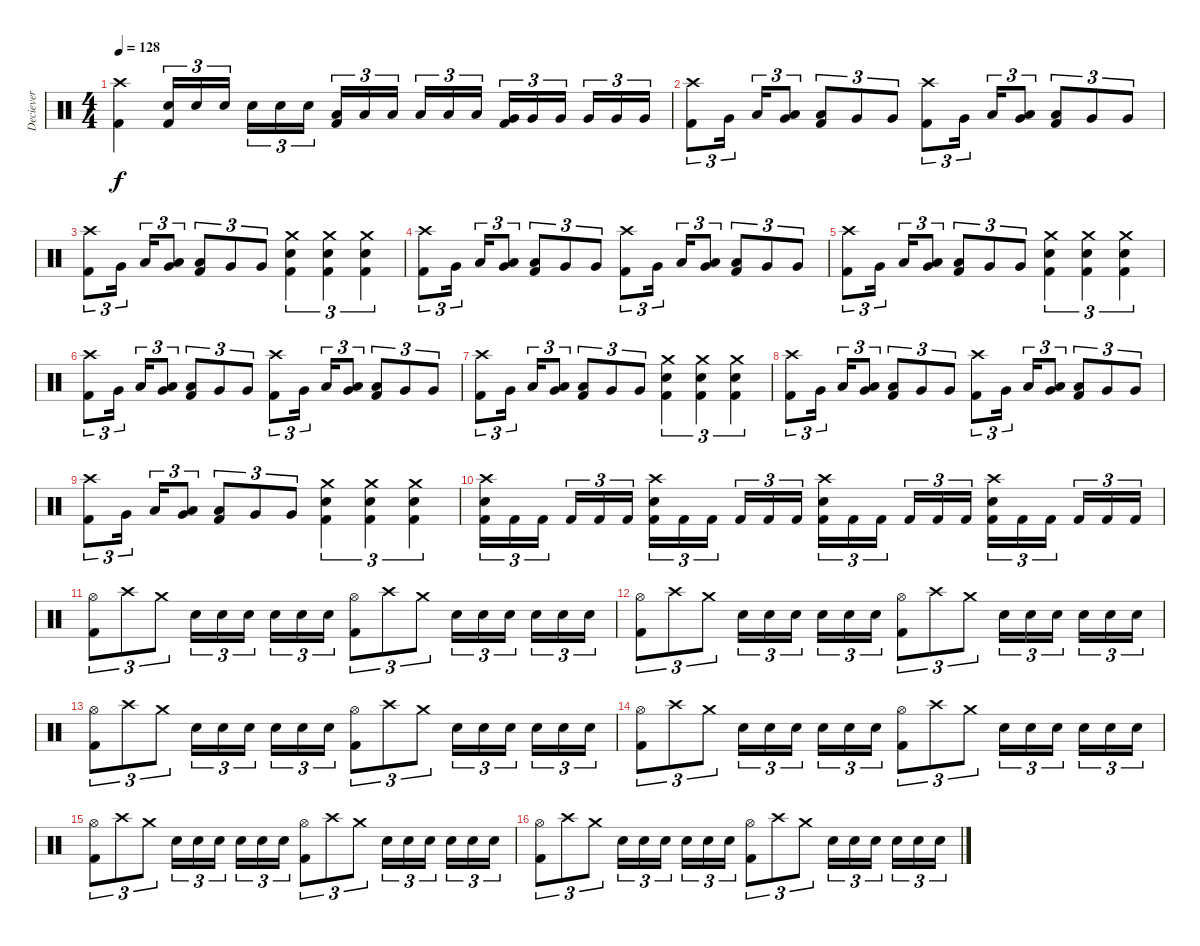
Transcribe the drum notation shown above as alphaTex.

\track ("Deciever" "Deciever") {instrument percussion}
\staff {score}
\articulation defaults
\ts (4 4)
\tempo 128
\clef neutral
\ks c
("Crash high (hit)" "Kick (hit) 2").4{dy f} ("Electric Snare (hit)" "Kick (hit) 2").16{tu (3 2)} "Electric Snare (hit)".16{tu (3 2)} "Electric Snare (hit)".16{tu (3 2) beam splitsecondary} "Electric Snare (hit)".16{tu (3 2)} "Electric Snare (hit)".16{tu (3 2)} "Electric Snare (hit)".16{tu (3 2)} ("Low Tom (hit)" "Kick (hit) 2").16{tu (3 2)} "Low Tom (hit)".16{tu (3 2)} "Low Tom (hit)".16{tu (3 2) beam splitsecondary} "Low Tom (hit)".16{tu (3 2)} "Low Tom (hit)".16{tu (3 2)} "Low Tom (hit)".16{tu (3 2)} ("Very Low Tom (hit)" "Kick (hit) 2").16{tu (3 2)} "Very Low Tom (hit)".16{tu (3 2)} "Very Low Tom (hit)".16{tu (3 2) beam splitsecondary} "Very Low Tom (hit)".16{tu (3 2)} "Very Low Tom (hit)".16{tu (3 2)} "Very Low Tom (hit)".16{tu (3 2)} |
("Crash high (hit)" "Kick (hit) 2").8{tu (3 2)} "Very Low Tom (hit)".16{tu (3 2) beam splitsecondary} "Low Tom (hit)".16{tu (3 2)} ("Low Tom (hit)" "Very Low Tom (hit)").8{tu (3 2)} ("Low Tom (hit)" "Kick (hit) 2").8{tu (3 2)} "Very Low Tom (hit)".8{tu (3 2)} "Very Low Tom (hit)".8{tu (3 2)} ("Crash high (hit)" "Kick (hit) 2").8{tu (3 2)} "Very Low Tom (hit)".16{tu (3 2) beam splitsecondary} "Low Tom (hit)".16{tu (3 2)} ("Low Tom (hit)" "Very Low Tom (hit)").8{tu (3 2)} ("Low Tom (hit)" "Kick (hit) 2").8{tu (3 2)} "Very Low Tom (hit)".8{tu (3 2)} "Very Low Tom (hit)".8{tu (3 2)} |
("Crash high (hit)" "Kick (hit) 2").8{tu (3 2)} "Very Low Tom (hit)".16{tu (3 2) beam splitsecondary} "Low Tom (hit)".16{tu (3 2)} ("Low Tom (hit)" "Very Low Tom (hit)").8{tu (3 2)} ("Low Tom (hit)" "Kick (hit) 2").8{tu (3 2)} "Very Low Tom (hit)".8{tu (3 2)} "Very Low Tom (hit)".8{tu (3 2)} ("Crash medium (hit)" "Electric Snare (hit)" "Kick (hit) 2").4{tu (3 2)} ("Crash medium (hit)" "Electric Snare (hit)" "Kick (hit) 2").4{tu (3 2)} ("Crash medium (hit)" "Electric Snare (hit)" "Kick (hit) 2").4{tu (3 2)} |
("Crash high (hit)" "Kick (hit) 2").8{tu (3 2)} "Very Low Tom (hit)".16{tu (3 2) beam splitsecondary} "Low Tom (hit)".16{tu (3 2)} ("Low Tom (hit)" "Very Low Tom (hit)").8{tu (3 2)} ("Low Tom (hit)" "Kick (hit) 2").8{tu (3 2)} "Very Low Tom (hit)".8{tu (3 2)} "Very Low Tom (hit)".8{tu (3 2)} ("Crash high (hit)" "Kick (hit) 2").8{tu (3 2)} "Very Low Tom (hit)".16{tu (3 2) beam splitsecondary} "Low Tom (hit)".16{tu (3 2)} ("Low Tom (hit)" "Very Low Tom (hit)").8{tu (3 2)} ("Low Tom (hit)" "Kick (hit) 2").8{tu (3 2)} "Very Low Tom (hit)".8{tu (3 2)} "Very Low Tom (hit)".8{tu (3 2)} |
("Crash high (hit)" "Kick (hit) 2").8{tu (3 2)} "Very Low Tom (hit)".16{tu (3 2) beam splitsecondary} "Low Tom (hit)".16{tu (3 2)} ("Low Tom (hit)" "Very Low Tom (hit)").8{tu (3 2)} ("Low Tom (hit)" "Kick (hit) 2").8{tu (3 2)} "Very Low Tom (hit)".8{tu (3 2)} "Very Low Tom (hit)".8{tu (3 2)} ("Crash medium (hit)" "Electric Snare (hit)" "Kick (hit) 2").4{tu (3 2)} ("Crash medium (hit)" "Electric Snare (hit)" "Kick (hit) 2").4{tu (3 2)} ("Crash medium (hit)" "Electric Snare (hit)" "Kick (hit) 2").4{tu (3 2)} |
("Crash high (hit)" "Kick (hit) 2").8{tu (3 2)} "Very Low Tom (hit)".16{tu (3 2) beam splitsecondary} "Low Tom (hit)".16{tu (3 2)} ("Low Tom (hit)" "Very Low Tom (hit)").8{tu (3 2)} ("Low Tom (hit)" "Kick (hit) 2").8{tu (3 2)} "Very Low Tom (hit)".8{tu (3 2)} "Very Low Tom (hit)".8{tu (3 2)} ("Crash high (hit)" "Kick (hit) 2").8{tu (3 2)} "Very Low Tom (hit)".16{tu (3 2) beam splitsecondary} "Low Tom (hit)".16{tu (3 2)} ("Low Tom (hit)" "Very Low Tom (hit)").8{tu (3 2)} ("Low Tom (hit)" "Kick (hit) 2").8{tu (3 2)} "Very Low Tom (hit)".8{tu (3 2)} "Very Low Tom (hit)".8{tu (3 2)} |
("Crash high (hit)" "Kick (hit) 2").8{tu (3 2)} "Very Low Tom (hit)".16{tu (3 2) beam splitsecondary} "Low Tom (hit)".16{tu (3 2)} ("Low Tom (hit)" "Very Low Tom (hit)").8{tu (3 2)} ("Low Tom (hit)" "Kick (hit) 2").8{tu (3 2)} "Very Low Tom (hit)".8{tu (3 2)} "Very Low Tom (hit)".8{tu (3 2)} ("Crash medium (hit)" "Electric Snare (hit)" "Kick (hit) 2").4{tu (3 2)} ("Crash medium (hit)" "Electric Snare (hit)" "Kick (hit) 2").4{tu (3 2)} ("Crash medium (hit)" "Electric Snare (hit)" "Kick (hit) 2").4{tu (3 2)} |
("Crash high (hit)" "Kick (hit) 2").8{tu (3 2)} "Very Low Tom (hit)".16{tu (3 2) beam splitsecondary} "Low Tom (hit)".16{tu (3 2)} ("Low Tom (hit)" "Very Low Tom (hit)").8{tu (3 2)} ("Low Tom (hit)" "Kick (hit) 2").8{tu (3 2)} "Very Low Tom (hit)".8{tu (3 2)} "Very Low Tom (hit)".8{tu (3 2)} ("Crash high (hit)" "Kick (hit) 2").8{tu (3 2)} "Very Low Tom (hit)".16{tu (3 2) beam splitsecondary} "Low Tom (hit)".16{tu (3 2)} ("Low Tom (hit)" "Very Low Tom (hit)").8{tu (3 2)} ("Low Tom (hit)" "Kick (hit) 2").8{tu (3 2)} "Very Low Tom (hit)".8{tu (3 2)} "Very Low Tom (hit)".8{tu (3 2)} |
("Crash high (hit)" "Kick (hit) 2").8{tu (3 2)} "Very Low Tom (hit)".16{tu (3 2) beam splitsecondary} "Low Tom (hit)".16{tu (3 2)} ("Low Tom (hit)" "Very Low Tom (hit)").8{tu (3 2)} ("Low Tom (hit)" "Kick (hit) 2").8{tu (3 2)} "Very Low Tom (hit)".8{tu (3 2)} "Very Low Tom (hit)".8{tu (3 2)} ("Crash medium (hit)" "Electric Snare (hit)" "Kick (hit) 2").4{tu (3 2)} ("Crash medium (hit)" "Electric Snare (hit)" "Kick (hit) 2").4{tu (3 2)} ("Crash medium (hit)" "Electric Snare (hit)" "Kick (hit) 2").4{tu (3 2)} |
("Crash high (hit)" "Electric Snare (hit)" "Kick (hit) 2").16{tu (3 2)} "Kick (hit) 2".16{tu (3 2)} "Kick (hit) 2".16{tu (3 2) beam splitsecondary} "Kick (hit) 2".16{tu (3 2)} "Kick (hit) 2".16{tu (3 2)} "Kick (hit) 2".16{tu (3 2)} ("Crash high (hit)" "Electric Snare (hit)" "Kick (hit) 2").16{tu (3 2)} "Kick (hit) 2".16{tu (3 2)} "Kick (hit) 2".16{tu (3 2) beam splitsecondary} "Kick (hit) 2".16{tu (3 2)} "Kick (hit) 2".16{tu (3 2)} "Kick (hit) 2".16{tu (3 2)} ("Crash high (hit)" "Electric Snare (hit)" "Kick (hit) 2").16{tu (3 2)} "Kick (hit) 2".16{tu (3 2)} "Kick (hit) 2".16{tu (3 2) beam splitsecondary} "Kick (hit) 2".16{tu (3 2)} "Kick (hit) 2".16{tu (3 2)} "Kick (hit) 2".16{tu (3 2)} ("Crash high (hit)" "Electric Snare (hit)" "Kick (hit) 2").16{tu (3 2)} "Kick (hit) 2".16{tu (3 2)} "Kick (hit) 2".16{tu (3 2) beam splitsecondary} "Kick (hit) 2".16{tu (3 2)} "Kick (hit) 2".16{tu (3 2)} "Kick (hit) 2".16{tu (3 2)} |
("Hi-Hat (open)" "Kick (hit) 2").8{tu (3 2)} "Crash high (hit)".8{tu (3 2)} "Crash medium (hit)".8{tu (3 2)} "Electric Snare (hit)".16{tu (3 2)} "Electric Snare (hit)".16{tu (3 2)} "Electric Snare (hit)".16{tu (3 2) beam splitsecondary} "Electric Snare (hit)".16{tu (3 2)} "Electric Snare (hit)".16{tu (3 2)} "Electric Snare (hit)".16{tu (3 2)} ("Hi-Hat (open)" "Kick (hit) 2").8{tu (3 2)} "Crash high (hit)".8{tu (3 2)} "Crash medium (hit)".8{tu (3 2)} "Electric Snare (hit)".16{tu (3 2)} "Electric Snare (hit)".16{tu (3 2)} "Electric Snare (hit)".16{tu (3 2) beam splitsecondary} "Electric Snare (hit)".16{tu (3 2)} "Electric Snare (hit)".16{tu (3 2)} "Electric Snare (hit)".16{tu (3 2)} |
("Hi-Hat (open)" "Kick (hit) 2").8{tu (3 2)} "Crash high (hit)".8{tu (3 2)} "Crash medium (hit)".8{tu (3 2)} "Electric Snare (hit)".16{tu (3 2)} "Electric Snare (hit)".16{tu (3 2)} "Electric Snare (hit)".16{tu (3 2) beam splitsecondary} "Electric Snare (hit)".16{tu (3 2)} "Electric Snare (hit)".16{tu (3 2)} "Electric Snare (hit)".16{tu (3 2)} ("Hi-Hat (open)" "Kick (hit) 2").8{tu (3 2)} "Crash high (hit)".8{tu (3 2)} "Crash medium (hit)".8{tu (3 2)} "Electric Snare (hit)".16{tu (3 2)} "Electric Snare (hit)".16{tu (3 2)} "Electric Snare (hit)".16{tu (3 2) beam splitsecondary} "Electric Snare (hit)".16{tu (3 2)} "Electric Snare (hit)".16{tu (3 2)} "Electric Snare (hit)".16{tu (3 2)} |
("Hi-Hat (open)" "Kick (hit) 2").8{tu (3 2)} "Crash high (hit)".8{tu (3 2)} "Crash medium (hit)".8{tu (3 2)} "Electric Snare (hit)".16{tu (3 2)} "Electric Snare (hit)".16{tu (3 2)} "Electric Snare (hit)".16{tu (3 2) beam splitsecondary} "Electric Snare (hit)".16{tu (3 2)} "Electric Snare (hit)".16{tu (3 2)} "Electric Snare (hit)".16{tu (3 2)} ("Hi-Hat (open)" "Kick (hit) 2").8{tu (3 2)} "Crash high (hit)".8{tu (3 2)} "Crash medium (hit)".8{tu (3 2)} "Electric Snare (hit)".16{tu (3 2)} "Electric Snare (hit)".16{tu (3 2)} "Electric Snare (hit)".16{tu (3 2) beam splitsecondary} "Electric Snare (hit)".16{tu (3 2)} "Electric Snare (hit)".16{tu (3 2)} "Electric Snare (hit)".16{tu (3 2)} |
("Hi-Hat (open)" "Kick (hit) 2").8{tu (3 2)} "Crash high (hit)".8{tu (3 2)} "Crash medium (hit)".8{tu (3 2)} "Electric Snare (hit)".16{tu (3 2)} "Electric Snare (hit)".16{tu (3 2)} "Electric Snare (hit)".16{tu (3 2) beam splitsecondary} "Electric Snare (hit)".16{tu (3 2)} "Electric Snare (hit)".16{tu (3 2)} "Electric Snare (hit)".16{tu (3 2)} ("Hi-Hat (open)" "Kick (hit) 2").8{tu (3 2)} "Crash high (hit)".8{tu (3 2)} "Crash medium (hit)".8{tu (3 2)} "Electric Snare (hit)".16{tu (3 2)} "Electric Snare (hit)".16{tu (3 2)} "Electric Snare (hit)".16{tu (3 2) beam splitsecondary} "Electric Snare (hit)".16{tu (3 2)} "Electric Snare (hit)".16{tu (3 2)} "Electric Snare (hit)".16{tu (3 2)} |
("Hi-Hat (open)" "Kick (hit) 2").8{tu (3 2)} "Crash high (hit)".8{tu (3 2)} "Crash medium (hit)".8{tu (3 2)} "Electric Snare (hit)".16{tu (3 2)} "Electric Snare (hit)".16{tu (3 2)} "Electric Snare (hit)".16{tu (3 2) beam splitsecondary} "Electric Snare (hit)".16{tu (3 2)} "Electric Snare (hit)".16{tu (3 2)} "Electric Snare (hit)".16{tu (3 2)} ("Hi-Hat (open)" "Kick (hit) 2").8{tu (3 2)} "Crash high (hit)".8{tu (3 2)} "Crash medium (hit)".8{tu (3 2)} "Electric Snare (hit)".16{tu (3 2)} "Electric Snare (hit)".16{tu (3 2)} "Electric Snare (hit)".16{tu (3 2) beam splitsecondary} "Electric Snare (hit)".16{tu (3 2)} "Electric Snare (hit)".16{tu (3 2)} "Electric Snare (hit)".16{tu (3 2)} |
("Hi-Hat (open)" "Kick (hit) 2").8{tu (3 2)} "Crash high (hit)".8{tu (3 2)} "Crash medium (hit)".8{tu (3 2)} "Electric Snare (hit)".16{tu (3 2)} "Electric Snare (hit)".16{tu (3 2)} "Electric Snare (hit)".16{tu (3 2) beam splitsecondary} "Electric Snare (hit)".16{tu (3 2)} "Electric Snare (hit)".16{tu (3 2)} "Electric Snare (hit)".16{tu (3 2)} ("Hi-Hat (open)" "Kick (hit) 2").8{tu (3 2)} "Crash high (hit)".8{tu (3 2)} "Crash medium (hit)".8{tu (3 2)} "Electric Snare (hit)".16{tu (3 2)} "Electric Snare (hit)".16{tu (3 2)} "Electric Snare (hit)".16{tu (3 2) beam splitsecondary} "Electric Snare (hit)".16{tu (3 2)} "Electric Snare (hit)".16{tu (3 2)} "Electric Snare (hit)".16{tu (3 2)}
